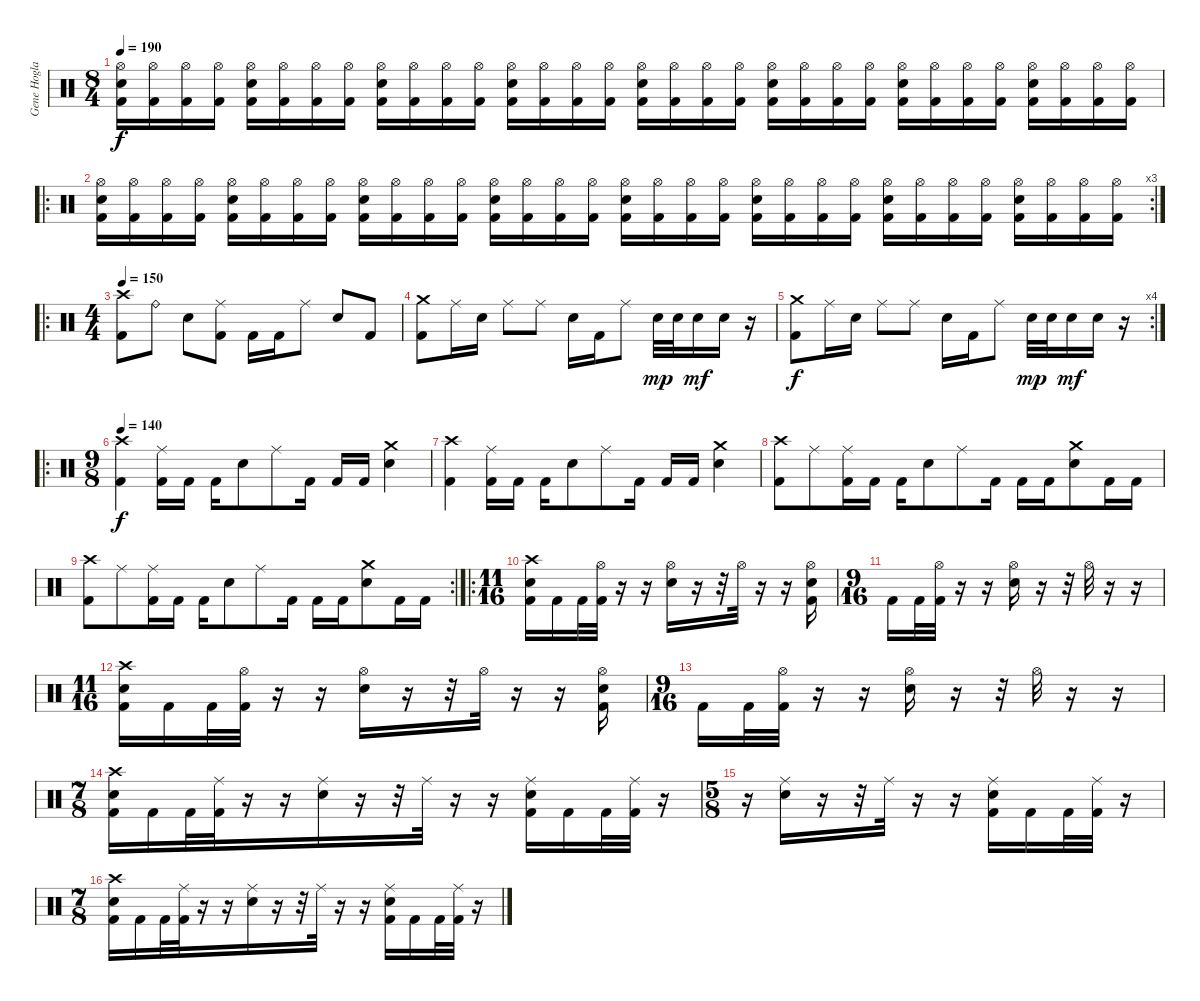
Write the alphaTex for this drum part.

\track ("Gene Hoglan" "Gene Hogla") {instrument percussion}
\staff {score}
\articulation defaults
\ts (8 4)
\tempo 190
\clef neutral
\ks c
("Hi-Hat (open)" "Electric Snare (hit)" "Kick (hit) 2").16{dy f} ("Hi-Hat (open)" "Kick (hit) 2").16 ("Hi-Hat (open)" "Kick (hit) 2").16 ("Hi-Hat (open)" "Kick (hit) 2").16 ("Hi-Hat (open)" "Electric Snare (hit)" "Kick (hit) 2").16 ("Hi-Hat (open)" "Kick (hit) 2").16 ("Hi-Hat (open)" "Kick (hit) 2").16 ("Hi-Hat (open)" "Kick (hit) 2").16 ("Hi-Hat (open)" "Electric Snare (hit)" "Kick (hit) 2").16 ("Hi-Hat (open)" "Kick (hit) 2").16 ("Hi-Hat (open)" "Kick (hit) 2").16 ("Hi-Hat (open)" "Kick (hit) 2").16 ("Hi-Hat (open)" "Electric Snare (hit)" "Kick (hit) 2").16 ("Hi-Hat (open)" "Kick (hit) 2").16 ("Hi-Hat (open)" "Kick (hit) 2").16 ("Hi-Hat (open)" "Kick (hit) 2").16 ("Hi-Hat (open)" "Electric Snare (hit)" "Kick (hit) 2").16 ("Hi-Hat (open)" "Kick (hit) 2").16 ("Hi-Hat (open)" "Kick (hit) 2").16 ("Hi-Hat (open)" "Kick (hit) 2").16 ("Hi-Hat (open)" "Electric Snare (hit)" "Kick (hit) 2").16 ("Hi-Hat (open)" "Kick (hit) 2").16 ("Hi-Hat (open)" "Kick (hit) 2").16 ("Hi-Hat (open)" "Kick (hit) 2").16 ("Hi-Hat (open)" "Electric Snare (hit)" "Kick (hit) 2").16 ("Hi-Hat (open)" "Kick (hit) 2").16 ("Hi-Hat (open)" "Kick (hit) 2").16 ("Hi-Hat (open)" "Kick (hit) 2").16 ("Hi-Hat (open)" "Electric Snare (hit)" "Kick (hit) 2").16 ("Hi-Hat (open)" "Kick (hit) 2").16 ("Hi-Hat (open)" "Kick (hit) 2").16 ("Hi-Hat (open)" "Kick (hit) 2").16 |
\ro
\rc 3
("Hi-Hat (open)" "Electric Snare (hit)" "Kick (hit) 2").16 ("Hi-Hat (open)" "Kick (hit) 2").16 ("Hi-Hat (open)" "Kick (hit) 2").16 ("Hi-Hat (open)" "Kick (hit) 2").16 ("Hi-Hat (open)" "Electric Snare (hit)" "Kick (hit) 2").16 ("Hi-Hat (open)" "Kick (hit) 2").16 ("Hi-Hat (open)" "Kick (hit) 2").16 ("Hi-Hat (open)" "Kick (hit) 2").16 ("Hi-Hat (open)" "Electric Snare (hit)" "Kick (hit) 2").16 ("Hi-Hat (open)" "Kick (hit) 2").16 ("Hi-Hat (open)" "Kick (hit) 2").16 ("Hi-Hat (open)" "Kick (hit) 2").16 ("Hi-Hat (open)" "Electric Snare (hit)" "Kick (hit) 2").16 ("Hi-Hat (open)" "Kick (hit) 2").16 ("Hi-Hat (open)" "Kick (hit) 2").16 ("Hi-Hat (open)" "Kick (hit) 2").16 ("Hi-Hat (open)" "Electric Snare (hit)" "Kick (hit) 2").16 ("Hi-Hat (open)" "Kick (hit) 2").16 ("Hi-Hat (open)" "Kick (hit) 2").16 ("Hi-Hat (open)" "Kick (hit) 2").16 ("Hi-Hat (open)" "Electric Snare (hit)" "Kick (hit) 2").16 ("Hi-Hat (open)" "Kick (hit) 2").16 ("Hi-Hat (open)" "Kick (hit) 2").16 ("Hi-Hat (open)" "Kick (hit) 2").16 ("Hi-Hat (open)" "Electric Snare (hit)" "Kick (hit) 2").16 ("Hi-Hat (open)" "Kick (hit) 2").16 ("Hi-Hat (open)" "Kick (hit) 2").16 ("Hi-Hat (open)" "Kick (hit) 2").16 ("Hi-Hat (open)" "Electric Snare (hit)" "Kick (hit) 2").16 ("Hi-Hat (open)" "Kick (hit) 2").16 ("Hi-Hat (open)" "Kick (hit) 2").16 ("Hi-Hat (open)" "Kick (hit) 2").16 |
\ro
\ts (4 4)
\tempo 150
("Crash high (hit)" "Kick (hit) 2").8 "Ride (bell)".8 "Electric Snare (hit)".8 ("Ride (middle)" "Kick (hit) 2").8 "Kick (hit) 2".16 "Kick (hit) 2".16 "Ride (middle)".8 "Electric Snare (hit)".8 "Kick (hit) 2".8 |
("Crash medium (hit)" "Kick (hit) 2").8 "Ride (middle)".16 "Electric Snare (hit)".16 "Ride (middle)".8 "Ride (middle)".8 "Electric Snare (hit)".16 "Kick (hit) 2".16 "Ride (middle)".8 "Electric Snare (hit)".32{dy mp} "Electric Snare (hit)".32 "Electric Snare (hit)".16{dy mf} "Electric Snare (hit)".16 r.16 |
\rc 4
("Crash medium (hit)" "Kick (hit) 2").8{dy f} "Ride (middle)".16 "Electric Snare (hit)".16 "Ride (middle)".8 "Ride (middle)".8 "Electric Snare (hit)".16 "Kick (hit) 2".16 "Ride (middle)".8 "Electric Snare (hit)".32{dy mp} "Electric Snare (hit)".32 "Electric Snare (hit)".16{dy mf} "Electric Snare (hit)".16 r.16 |
\ro
\ts (9 8)
\tempo 140
("Crash high (hit)" "Kick (hit) 2").4{dy f} ("Ride (middle)" "Kick (hit) 2").16 "Kick (hit) 2".16 "Kick (hit) 2".16 "Electric Snare (hit)".8 "Ride (middle)".8 "Kick (hit) 2".16 "Kick (hit) 2".16 "Kick (hit) 2".16 ("Crash medium (hit)" "Electric Snare (hit)").4 |
("Crash high (hit)" "Kick (hit) 2").4 ("Ride (middle)" "Kick (hit) 2").16 "Kick (hit) 2".16 "Kick (hit) 2".16 "Electric Snare (hit)".8 "Ride (middle)".8 "Kick (hit) 2".16 "Kick (hit) 2".16 "Kick (hit) 2".16 ("Crash medium (hit)" "Electric Snare (hit)").4 |
("Crash high (hit)" "Kick (hit) 2").8 "Ride (middle)".8 ("Ride (middle)" "Kick (hit) 2").16 "Kick (hit) 2".16 "Kick (hit) 2".16 "Electric Snare (hit)".8 "Ride (middle)".8 "Kick (hit) 2".16 "Kick (hit) 2".16 "Kick (hit) 2".16 ("Crash medium (hit)" "Electric Snare (hit)").8 "Kick (hit) 2".16 "Kick (hit) 2".16 |
\rc 2
("Crash high (hit)" "Kick (hit) 2").8 "Ride (middle)".8 ("Ride (middle)" "Kick (hit) 2").16 "Kick (hit) 2".16 "Kick (hit) 2".16 "Electric Snare (hit)".8 "Ride (middle)".8 "Kick (hit) 2".16 "Kick (hit) 2".16 "Kick (hit) 2".16 ("Crash medium (hit)" "Electric Snare (hit)").8 "Kick (hit) 2".16 "Kick (hit) 2".16 |
\ro
\ts (11 16)
("Crash high (hit)" "Electric Snare (hit)" "Kick (hit) 2").16 "Kick (hit) 2".16 "Kick (hit) 2".32 ("Hi-Hat (open)" "Kick (hit) 2").32 r.16 r.16 ("Hi-Hat (open)" "Electric Snare (hit)").16 r.16 r.32 "Hi-Hat (open)".32 r.16 r.16 ("Hi-Hat (open)" "Electric Snare (hit)" "Kick (hit) 2").16 |
\ts (9 16)
"Kick (hit) 2".16 "Kick (hit) 2".32 ("Hi-Hat (open)" "Kick (hit) 2").32 r.16 r.16 ("Hi-Hat (open)" "Electric Snare (hit)").16 r.16 r.32 "Hi-Hat (open)".32 r.16 r.16 |
\ts (11 16)
("Crash high (hit)" "Electric Snare (hit)" "Kick (hit) 2").16 "Kick (hit) 2".16 "Kick (hit) 2".32 ("Hi-Hat (open)" "Kick (hit) 2").32 r.16 r.16 ("Hi-Hat (open)" "Electric Snare (hit)").16 r.16 r.32 "Hi-Hat (open)".32 r.16 r.16 ("Hi-Hat (open)" "Electric Snare (hit)" "Kick (hit) 2").16 |
\ts (9 16)
"Kick (hit) 2".16 "Kick (hit) 2".32 ("Hi-Hat (open)" "Kick (hit) 2").32 r.16 r.16 ("Hi-Hat (open)" "Electric Snare (hit)").16 r.16 r.32 "Hi-Hat (open)".32 r.16 r.16 |
\ts (7 8)
("Crash high (hit)" "Electric Snare (hit)" "Kick (hit) 2").16 "Kick (hit) 2".16 "Kick (hit) 2".32 ("Ride (middle)" "Kick (hit) 2").32 r.16 r.16 ("Ride (middle)" "Electric Snare (hit)").16 r.16 r.32 "Ride (middle)".32 r.16 r.16 ("Ride (middle)" "Electric Snare (hit)" "Kick (hit) 2").16 "Kick (hit) 2".16 "Kick (hit) 2".32 ("Ride (middle)" "Kick (hit) 2").32 r.16 |
\ts (5 8)
r.16 ("Ride (middle)" "Electric Snare (hit)").16 r.16 r.32 "Ride (middle)".32 r.16 r.16 ("Ride (middle)" "Electric Snare (hit)" "Kick (hit) 2").16 "Kick (hit) 2".16 "Kick (hit) 2".32 ("Ride (middle)" "Kick (hit) 2").32 r.16 |
\ts (7 8)
("Crash high (hit)" "Electric Snare (hit)" "Kick (hit) 2").16 "Kick (hit) 2".16 "Kick (hit) 2".32 ("Ride (middle)" "Kick (hit) 2").32 r.16 r.16 ("Ride (middle)" "Electric Snare (hit)").16 r.16 r.32 "Ride (middle)".32 r.16 r.16 ("Ride (middle)" "Electric Snare (hit)" "Kick (hit) 2").16 "Kick (hit) 2".16 "Kick (hit) 2".32 ("Ride (middle)" "Kick (hit) 2").32 r.16
